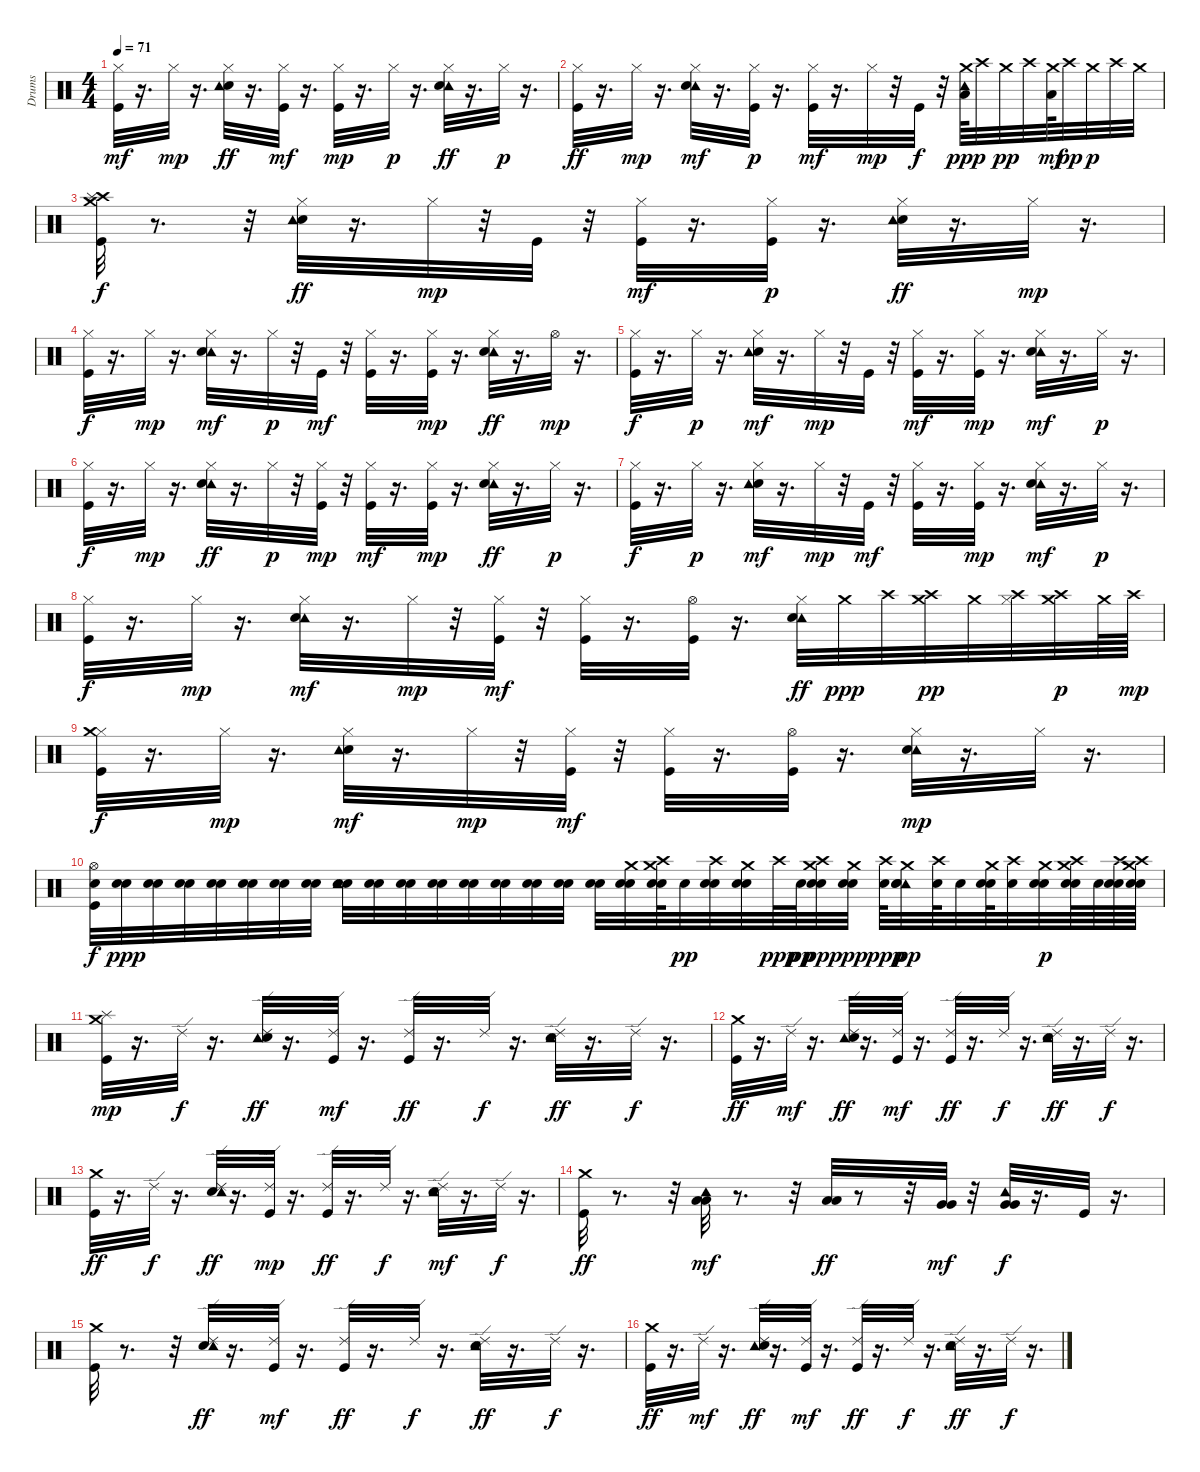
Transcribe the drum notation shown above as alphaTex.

\track ("Drums" "Drums") {instrument percussion}
\staff {score}
\articulation defaults
\ts (4 4)
\tempo 71
\clef neutral
\ks c
("Kick (hit)" "Hi-Hat (closed)").32{dy mf} r.16{d} "Hi-Hat (closed)".32{dy mp} r.16{d} ("Hi-Hat (closed)" "Snare (hit) 2" "Tambourine (hit)").32{dy ff} r.16{d} ("Hi-Hat (closed)" "Kick (hit)").32{dy mf} r.16{d} ("Kick (hit)" "Hi-Hat (closed)").32{dy mp} r.16{d} "Hi-Hat (closed)".32{dy p} r.16{d} ("Hi-Hat (closed)" "Tambourine (hit)" "Snare (hit) 2").32{dy ff} r.16{d} "Hi-Hat (closed)".32{dy p} r.16{d} |
("Hi-Hat (closed)" "Kick (hit)").32{dy ff} r.16{d} "Hi-Hat (closed)".32{dy mp} r.16{d} ("Tambourine (hit)" "Snare (hit) 2" "Hi-Hat (closed)").32{dy mf} r.16{d} ("Kick (hit)" "Hi-Hat (closed)").32{dy p} r.16{d} ("Kick (hit)" "Hi-Hat (closed)").32{dy mf} r.16{d} "Hi-Hat (closed)".32{dy mp} r.32 "Kick (hit)".32{dy f} r.32 ("Tambourine (hit)" "Low Tom (hit)" "Crash medium (hit)").64{dy ppp} "Crash high (hit)".32 "Crash medium (hit)".32{dy pp} "Crash high (hit)".32 ("Crash medium (hit)" "Low Floor Tom (hit)").64{dy mf} "Crash high (hit)".32{dy pp} "Crash medium (hit)".32{dy p} "Crash high (hit)".32 "Crash medium (hit)".32 |
("Crash high (hit)" "Kick (hit)" "Splash (hit)" "Crash medium (hit)").32{dy f} r.8{d} r.32 ("Hi-Hat (closed)" "Snare (hit) 2" "Tambourine (hit)").32{dy ff} r.16{d} "Hi-Hat (closed)".32{dy mp} r.32 "Kick (hit)".32 r.32 ("Hi-Hat (closed)" "Kick (hit)").32{dy mf} r.16{d} ("Kick (hit)" "Hi-Hat (closed)").32{dy p} r.16{d} ("Hi-Hat (closed)" "Snare (hit) 2" "Tambourine (hit)").32{dy ff} r.16{d} "Hi-Hat (closed)".32{dy mp} r.16{d} |
("Hi-Hat (closed)" "Kick (hit)").32{dy f} r.16{d} "Hi-Hat (closed)".32{dy mp} r.16{d} ("Tambourine (hit)" "Snare (hit) 2" "Hi-Hat (closed)").32{dy mf} r.16{d} "Hi-Hat (closed)".32{dy p} r.32 "Kick (hit)".32{dy mf} r.32 ("Kick (hit)" "Hi-Hat (closed)").32 r.16{d} ("Kick (hit)" "Hi-Hat (closed)").32{dy mp} r.16{d} ("Hi-Hat (closed)" "Tambourine (hit)" "Snare (hit) 2").32{dy ff} r.16{d} "Hi-Hat (open)".32{dy mp} r.16{d} |
("Kick (hit)" "Hi-Hat (closed)").32{dy f} r.16{d} "Hi-Hat (closed)".32{dy p} r.16{d} ("Snare (hit) 2" "Hi-Hat (closed)" "Tambourine (hit)").32{dy mf} r.16{d} "Hi-Hat (closed)".32{dy mp} r.32 "Kick (hit)".32 r.32 ("Kick (hit)" "Hi-Hat (closed)").32{dy mf} r.16{d} ("Kick (hit)" "Hi-Hat (closed)").32{dy mp} r.16{d} ("Hi-Hat (closed)" "Tambourine (hit)" "Snare (hit) 2").32{dy mf} r.16{d} "Hi-Hat (closed)".32{dy p} r.16{d} |
("Kick (hit)" "Hi-Hat (closed)").32{dy f} r.16{d} "Hi-Hat (closed)".32{dy mp} r.16{d} ("Hi-Hat (closed)" "Tambourine (hit)" "Snare (hit) 2").32{dy ff} r.16{d} "Hi-Hat (closed)".32{dy p} r.32 ("Kick (hit)" "Hi-Hat (closed)").32{dy mp} r.32 ("Kick (hit)" "Hi-Hat (closed)").32{dy mf} r.16{d} ("Kick (hit)" "Hi-Hat (closed)").32{dy mp} r.16{d} ("Hi-Hat (closed)" "Tambourine (hit)" "Snare (hit) 2").32{dy ff} r.16{d} "Hi-Hat (closed)".32{dy p} r.16{d} |
("Kick (hit)" "Hi-Hat (closed)").32{dy f} r.16{d} "Hi-Hat (closed)".32{dy p} r.16{d} ("Snare (hit) 2" "Hi-Hat (closed)" "Tambourine (hit)").32{dy mf} r.16{d} "Hi-Hat (closed)".32{dy mp} r.32 "Kick (hit)".32{dy mf} r.32 ("Kick (hit)" "Hi-Hat (closed)").32 r.16{d} ("Kick (hit)" "Hi-Hat (closed)").32{dy mp} r.16{d} ("Tambourine (hit)" "Snare (hit) 2" "Hi-Hat (closed)").32{dy mf} r.16{d} "Hi-Hat (closed)".32{dy p} r.16{d} |
("Kick (hit)" "Hi-Hat (closed)").32{dy f} r.16{d} "Hi-Hat (closed)".32{dy mp} r.16{d} ("Tambourine (hit)" "Snare (hit) 2" "Hi-Hat (closed)").32{dy mf} r.16{d} "Hi-Hat (closed)".32{dy mp} r.32 ("Hi-Hat (closed)" "Kick (hit)").32{dy mf} r.32 ("Kick (hit)" "Hi-Hat (closed)").32 r.16{d} ("Kick (hit)" "Hi-Hat (open)").32 r.16{d} ("Hi-Hat (closed)" "Tambourine (hit)" "Snare (hit) 2").32{dy ff} "Crash medium (hit)".32{dy ppp} "Crash high (hit)".32 ("Crash medium (hit)" "Crash high (hit)").32{dy pp} "Crash medium (hit)".32 ("Hi-Hat (closed)" "Crash high (hit)").32 ("Crash medium (hit)" "Crash high (hit)").32{dy p} "Crash medium (hit)".64 "Crash high (hit)".64{dy mp} |
("Kick (hit)" "Hi-Hat (closed)" "Crash medium (hit)").32{dy f} r.16{d} "Hi-Hat (closed)".32{dy mp} r.16{d} ("Snare (hit) 2" "Tambourine (hit)" "Hi-Hat (closed)").32{dy mf} r.16{d} "Hi-Hat (closed)".32{dy mp} r.32 ("Hi-Hat (closed)" "Kick (hit)").32{dy mf} r.32 ("Kick (hit)" "Hi-Hat (closed)").32 r.16{d} ("Kick (hit)" "Hi-Hat (open)").32 r.16{d} ("Tambourine (hit)" "Snare (hit) 2" "Hi-Hat (closed)").32{dy mp} r.16{d} "Hi-Hat (closed)".32 r.16{d} |
("Kick (hit)" "Snare (hit) 2" "Hi-Hat (open)").32{dy f} ("Snare (hit) 2" "Snare (hit) 2").32{dy ppp} ("Snare (hit) 2" "Snare (hit) 2").32 ("Snare (hit) 2" "Snare (hit) 2").32 ("Snare (hit) 2" "Snare (hit) 2").32 ("Snare (hit) 2" "Snare (hit) 2").32 ("Snare (hit) 2" "Snare (hit) 2").32 ("Snare (hit) 2" "Snare (hit) 2").32 ("Snare (hit) 2" "Tambourine (hit)" "Snare (hit) 2").32 ("Snare (hit) 2" "Snare (hit) 2").32 ("Snare (hit) 2" "Snare (hit) 2").32 ("Snare (hit) 2" "Snare (hit) 2").32 ("Snare (hit) 2" "Snare (hit) 2").32 ("Snare (hit) 2" "Snare (hit) 2").32 ("Snare (hit) 2" "Snare (hit) 2").32 ("Snare (hit) 2" "Snare (hit) 2").32 ("Snare (hit) 2" "Snare (hit) 2").32 ("Crash medium (hit)" "Snare (hit) 2" "Snare (hit) 2").32 ("Crash high (hit)" "Snare (hit) 2" "Snare (hit) 2" "Crash medium (hit)").64 "Snare (hit) 2".32{dy pp} ("Crash high (hit)" "Snare (hit) 2" "Snare (hit) 2").32 ("Crash medium (hit)" "Snare (hit) 2" "Snare (hit) 2").32 "Crash high (hit)".64{dy ppp} "Snare (hit) 2".64{dy pp} ("Crash medium (hit)" "Snare (hit) 2" "Snare (hit) 2" "Crash high (hit)").32{dy ppp} ("Snare (hit) 2" "Crash medium (hit)" "Snare (hit) 2").32{dy pp} ("Snare (hit) 2" "Crash high (hit)").64{dy ppp} ("Tambourine (hit)" "Snare (hit) 2" "Crash medium (hit)" "Snare (hit) 2").32{dy pp} ("Snare (hit) 2" "Crash high (hit)").64 "Snare (hit) 2".32 ("Crash medium (hit)" "Snare (hit) 2" "Snare (hit) 2").64 ("Crash high (hit)" "Snare (hit) 2").32 ("Crash medium (hit)" "Snare (hit) 2" "Snare (hit) 2").32{dy p} ("Crash high (hit)" "Snare (hit) 2" "Snare (hit) 2" "Crash medium (hit)").64 "Snare (hit) 2".64 ("Crash high (hit)" "Snare (hit) 2" "Snare (hit) 2").64 ("Crash medium (hit)" "Snare (hit) 2" "Crash high (hit)" "Snare (hit) 2").64 |
("Kick (hit)" "Crash medium (hit)" "Splash (hit)").32{dy mp} r.16{d} "Ride (edge) 2".32{dy f} r.16{d} ("Ride (edge) 2" "Tambourine (hit)" "Snare (hit) 2").32{dy ff} r.16{d} ("Kick (hit)" "Ride (edge) 2").32{dy mf} r.16{d} ("Kick (hit)" "Ride (edge) 2").32{dy ff} r.16{d} "Ride (edge) 2".32{dy f} r.16{d} ("Snare (hit) 2" "Tambourine (hit)" "Ride (edge) 2").32{dy ff} r.16{d} "Ride (edge) 2".32{dy f} r.16{d} |
("Crash medium (hit)" "Kick (hit)").32{dy ff} r.16{d} "Ride (edge) 2".32{dy mf} r.16{d} ("Ride (edge) 2" "Tambourine (hit)" "Snare (hit) 2").32{dy ff} r.16{d} ("Ride (edge) 2" "Kick (hit)").32{dy mf} r.16{d} ("Kick (hit)" "Ride (edge) 2").32{dy ff} r.16{d} "Ride (edge) 2".32{dy f} r.16{d} ("Ride (edge) 2" "Tambourine (hit)" "Snare (hit) 2").32{dy ff} r.16{d} "Ride (edge) 2".32{dy f} r.16{d} |
("Kick (hit)" "Crash medium (hit)").32{dy ff} r.16{d} "Ride (edge) 2".32{dy f} r.16{d} ("Ride (edge) 2" "Snare (hit) 2" "Tambourine (hit)").32{dy ff} r.16{d} ("Ride (edge) 2" "Kick (hit)").32{dy mp} r.16{d} ("Ride (edge) 2" "Kick (hit)").32{dy ff} r.16{d} "Ride (edge) 2".32{dy f} r.16{d} ("Tambourine (hit)" "Snare (hit) 2" "Ride (edge) 2").32{dy mf} r.16{d} "Ride (edge) 2".32{dy f} r.16{d} |
("Crash medium (hit)" "Kick (hit)").32{dy ff} r.8{d} r.32 ("Low Tom (hit)" "Tambourine (hit)" "Low Tom (hit)").32{dy mf} r.8{d} r.32 ("Low Tom (hit)" "Low Tom (hit)").32{dy ff} r.8 r.32 ("Very Low Tom (hit)" "Very Low Tom (hit)").32{dy mf} r.32 ("Very Low Tom (hit)" "Tambourine (hit)" "Very Low Tom (hit)").32{dy f} r.16{d} "Kick (hit)".32 r.16{d} |
("Kick (hit)" "Crash medium (hit)").32 r.8{d} r.32 ("Snare (hit) 2" "Ride (edge) 2" "Tambourine (hit)").32{dy ff} r.16{d} ("Kick (hit)" "Ride (edge) 2").32{dy mf} r.16{d} ("Kick (hit)" "Ride (edge) 2").32{dy ff} r.16{d} "Ride (edge) 2".32{dy f} r.16{d} ("Ride (edge) 2" "Tambourine (hit)" "Snare (hit) 2").32{dy ff} r.16{d} "Ride (edge) 2".32{dy f} r.16{d} |
("Crash medium (hit)" "Kick (hit)").32{dy ff} r.16{d} "Ride (edge) 2".32{dy mf} r.16{d} ("Ride (edge) 2" "Tambourine (hit)" "Snare (hit) 2").32{dy ff} r.16{d} ("Kick (hit)" "Ride (edge) 2").32{dy mf} r.16{d} ("Kick (hit)" "Ride (edge) 2").32{dy ff} r.16{d} "Ride (edge) 2".32{dy f} r.16{d} ("Ride (edge) 2" "Tambourine (hit)" "Snare (hit) 2").32{dy ff} r.16{d} "Ride (edge) 2".32{dy f} r.16{d}
